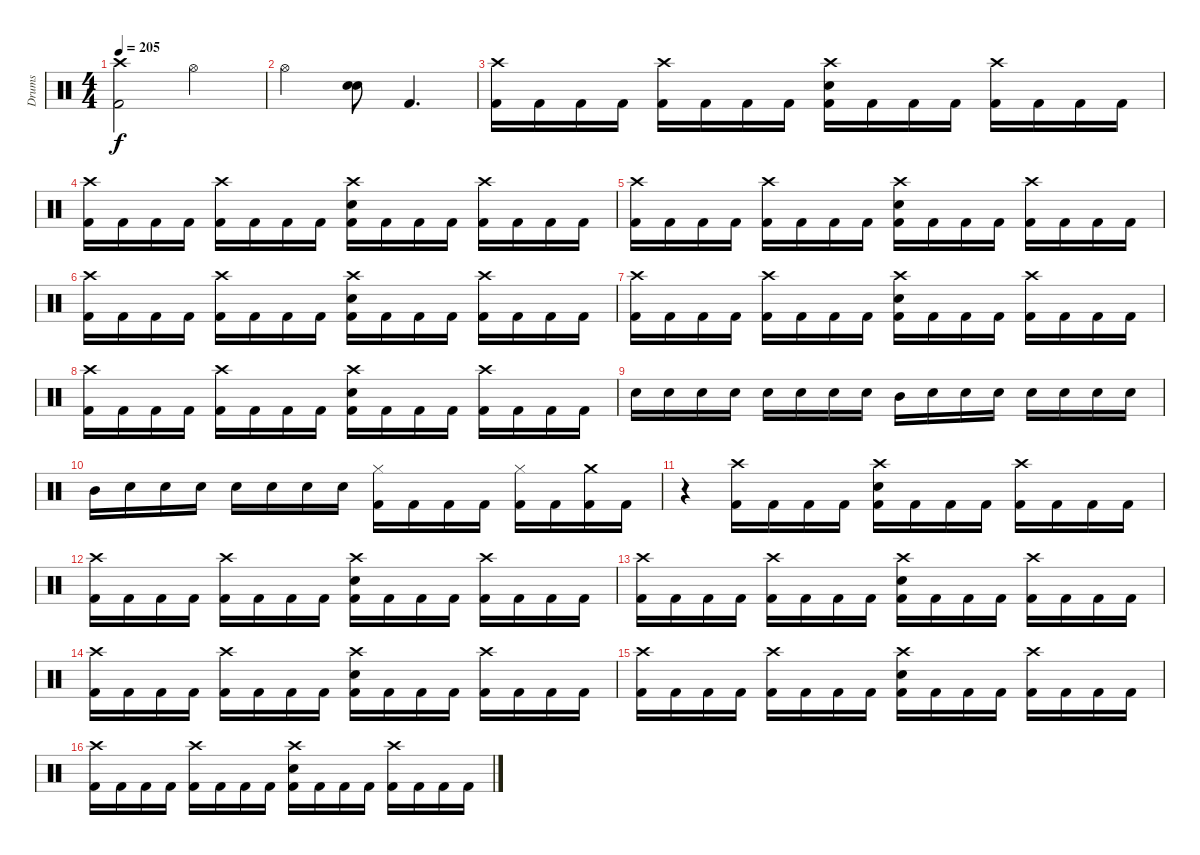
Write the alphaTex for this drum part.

\track ("Drums" "Drums") {instrument percussion}
\staff {score}
\articulation defaults
\ts (4 4)
\tempo 205
\clef neutral
\ks c
("Crash high (hit)" "Kick (hit) 2").2{dy f} "Hi-Hat (open)".2 |
"Hi-Hat (open)".2 ("Snare (hit) 2" "Snare (hit) 2").8 "Kick (hit) 2".4{d} |
("Crash high (hit)" "Kick (hit) 2").16 "Kick (hit) 2".16 "Kick (hit) 2".16 "Kick (hit) 2".16 ("Crash high (hit)" "Kick (hit) 2").16 "Kick (hit) 2".16 "Kick (hit) 2".16 "Kick (hit) 2".16 ("Crash high (hit)" "Snare (hit) 2" "Kick (hit) 2").16 "Kick (hit) 2".16 "Kick (hit) 2".16 "Kick (hit) 2".16 ("Crash high (hit)" "Kick (hit) 2").16 "Kick (hit) 2".16 "Kick (hit) 2".16 "Kick (hit) 2".16 |
("Crash high (hit)" "Kick (hit) 2").16 "Kick (hit) 2".16 "Kick (hit) 2".16 "Kick (hit) 2".16 ("Crash high (hit)" "Kick (hit) 2").16 "Kick (hit) 2".16 "Kick (hit) 2".16 "Kick (hit) 2".16 ("Crash high (hit)" "Snare (hit) 2" "Kick (hit) 2").16 "Kick (hit) 2".16 "Kick (hit) 2".16 "Kick (hit) 2".16 ("Crash high (hit)" "Kick (hit) 2").16 "Kick (hit) 2".16 "Kick (hit) 2".16 "Kick (hit) 2".16 |
("Crash high (hit)" "Kick (hit) 2").16 "Kick (hit) 2".16 "Kick (hit) 2".16 "Kick (hit) 2".16 ("Crash high (hit)" "Kick (hit) 2").16 "Kick (hit) 2".16 "Kick (hit) 2".16 "Kick (hit) 2".16 ("Crash high (hit)" "Snare (hit) 2" "Kick (hit) 2").16 "Kick (hit) 2".16 "Kick (hit) 2".16 "Kick (hit) 2".16 ("Crash high (hit)" "Kick (hit) 2").16 "Kick (hit) 2".16 "Kick (hit) 2".16 "Kick (hit) 2".16 |
("Crash high (hit)" "Kick (hit) 2").16 "Kick (hit) 2".16 "Kick (hit) 2".16 "Kick (hit) 2".16 ("Crash high (hit)" "Kick (hit) 2").16 "Kick (hit) 2".16 "Kick (hit) 2".16 "Kick (hit) 2".16 ("Crash high (hit)" "Snare (hit) 2" "Kick (hit) 2").16 "Kick (hit) 2".16 "Kick (hit) 2".16 "Kick (hit) 2".16 ("Crash high (hit)" "Kick (hit) 2").16 "Kick (hit) 2".16 "Kick (hit) 2".16 "Kick (hit) 2".16 |
("Crash high (hit)" "Kick (hit) 2").16 "Kick (hit) 2".16 "Kick (hit) 2".16 "Kick (hit) 2".16 ("Crash high (hit)" "Kick (hit) 2").16 "Kick (hit) 2".16 "Kick (hit) 2".16 "Kick (hit) 2".16 ("Crash high (hit)" "Snare (hit) 2" "Kick (hit) 2").16 "Kick (hit) 2".16 "Kick (hit) 2".16 "Kick (hit) 2".16 ("Crash high (hit)" "Kick (hit) 2").16 "Kick (hit) 2".16 "Kick (hit) 2".16 "Kick (hit) 2".16 |
("Crash high (hit)" "Kick (hit) 2").16 "Kick (hit) 2".16 "Kick (hit) 2".16 "Kick (hit) 2".16 ("Crash high (hit)" "Kick (hit) 2").16 "Kick (hit) 2".16 "Kick (hit) 2".16 "Kick (hit) 2".16 ("Crash high (hit)" "Snare (hit) 2" "Kick (hit) 2").16 "Kick (hit) 2".16 "Kick (hit) 2".16 "Kick (hit) 2".16 ("Crash high (hit)" "Kick (hit) 2").16 "Kick (hit) 2".16 "Kick (hit) 2".16 "Kick (hit) 2".16 |
"Snare (hit) 2".16 "Snare (hit) 2".16 "Snare (hit) 2".16 "Snare (hit) 2".16 "Snare (hit) 2".16 "Snare (hit) 2".16 "Snare (hit) 2".16 "Snare (hit) 2".16 "Mid Tom (hit)".16 "Snare (hit) 2".16 "Snare (hit) 2".16 "Snare (hit) 2".16 "Snare (hit) 2".16 "Snare (hit) 2".16 "Snare (hit) 2".16 "Snare (hit) 2".16 |
"Mid Tom (hit)".16 "Snare (hit) 2".16 "Snare (hit) 2".16 "Snare (hit) 2".16 "Snare (hit) 2".16 "Snare (hit) 2".16 "Snare (hit) 2".16 "Snare (hit) 2".16 ("Hi-Hat (closed)" "Kick (hit) 2").16 "Kick (hit) 2".16 "Kick (hit) 2".16 "Kick (hit) 2".16 ("Hi-Hat (closed)" "Kick (hit) 2").16 "Kick (hit) 2".16 ("Crash medium (hit)"{x} "Kick (hit) 2").16 "Kick (hit) 2".16 |
r.4 ("Crash high (hit)" "Kick (hit) 2").16 "Kick (hit) 2".16 "Kick (hit) 2".16 "Kick (hit) 2".16 ("Crash high (hit)" "Snare (hit) 2" "Kick (hit) 2").16 "Kick (hit) 2".16 "Kick (hit) 2".16 "Kick (hit) 2".16 ("Crash high (hit)" "Kick (hit) 2").16 "Kick (hit) 2".16 "Kick (hit) 2".16 "Kick (hit) 2".16 |
("Crash high (hit)" "Kick (hit) 2").16 "Kick (hit) 2".16 "Kick (hit) 2".16 "Kick (hit) 2".16 ("Crash high (hit)" "Kick (hit) 2").16 "Kick (hit) 2".16 "Kick (hit) 2".16 "Kick (hit) 2".16 ("Crash high (hit)" "Snare (hit) 2" "Kick (hit) 2").16 "Kick (hit) 2".16 "Kick (hit) 2".16 "Kick (hit) 2".16 ("Crash high (hit)" "Kick (hit) 2").16 "Kick (hit) 2".16 "Kick (hit) 2".16 "Kick (hit) 2".16 |
("Crash high (hit)" "Kick (hit) 2").16 "Kick (hit) 2".16 "Kick (hit) 2".16 "Kick (hit) 2".16 ("Crash high (hit)" "Kick (hit) 2").16 "Kick (hit) 2".16 "Kick (hit) 2".16 "Kick (hit) 2".16 ("Crash high (hit)" "Snare (hit) 2" "Kick (hit) 2").16 "Kick (hit) 2".16 "Kick (hit) 2".16 "Kick (hit) 2".16 ("Crash high (hit)" "Kick (hit) 2").16 "Kick (hit) 2".16 "Kick (hit) 2".16 "Kick (hit) 2".16 |
("Crash high (hit)" "Kick (hit) 2").16 "Kick (hit) 2".16 "Kick (hit) 2".16 "Kick (hit) 2".16 ("Crash high (hit)" "Kick (hit) 2").16 "Kick (hit) 2".16 "Kick (hit) 2".16 "Kick (hit) 2".16 ("Crash high (hit)" "Snare (hit) 2" "Kick (hit) 2").16 "Kick (hit) 2".16 "Kick (hit) 2".16 "Kick (hit) 2".16 ("Crash high (hit)" "Kick (hit) 2").16 "Kick (hit) 2".16 "Kick (hit) 2".16 "Kick (hit) 2".16 |
("Crash high (hit)" "Kick (hit) 2").16 "Kick (hit) 2".16 "Kick (hit) 2".16 "Kick (hit) 2".16 ("Crash high (hit)" "Kick (hit) 2").16 "Kick (hit) 2".16 "Kick (hit) 2".16 "Kick (hit) 2".16 ("Crash high (hit)" "Snare (hit) 2" "Kick (hit) 2").16 "Kick (hit) 2".16 "Kick (hit) 2".16 "Kick (hit) 2".16 ("Crash high (hit)" "Kick (hit) 2").16 "Kick (hit) 2".16 "Kick (hit) 2".16 "Kick (hit) 2".16 |
("Crash high (hit)" "Kick (hit) 2").16 "Kick (hit) 2".16 "Kick (hit) 2".16 "Kick (hit) 2".16 ("Crash high (hit)" "Kick (hit) 2").16 "Kick (hit) 2".16 "Kick (hit) 2".16 "Kick (hit) 2".16 ("Crash high (hit)" "Snare (hit) 2" "Kick (hit) 2").16 "Kick (hit) 2".16 "Kick (hit) 2".16 "Kick (hit) 2".16 ("Crash high (hit)" "Kick (hit) 2").16 "Kick (hit) 2".16 "Kick (hit) 2".16 "Kick (hit) 2".16
